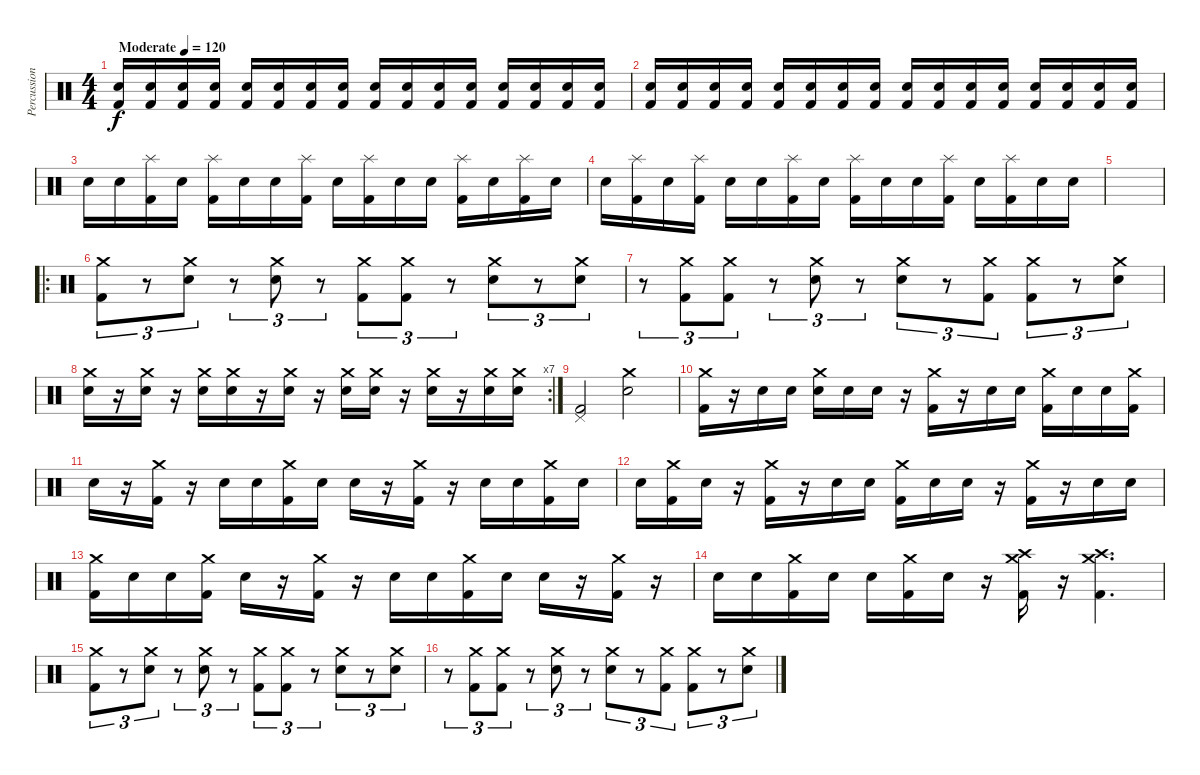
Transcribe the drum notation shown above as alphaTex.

\track ("Percussion" "Percussion") {instrument percussion}
\staff {score}
\articulation defaults
\ts (4 4)
\tempo (120 "Moderate")
\clef neutral
\ks c
("Snare (hit) 2" "Kick (hit) 2").16{dy f} ("Snare (hit) 2" "Kick (hit) 2").16 ("Snare (hit) 2" "Kick (hit) 2").16 ("Snare (hit) 2" "Kick (hit) 2").16 ("Snare (hit) 2" "Kick (hit) 2").16 ("Snare (hit) 2" "Kick (hit) 2").16 ("Snare (hit) 2" "Kick (hit) 2").16 ("Snare (hit) 2" "Kick (hit) 2").16 ("Snare (hit) 2" "Kick (hit) 2").16 ("Snare (hit) 2" "Kick (hit) 2").16 ("Snare (hit) 2" "Kick (hit) 2").16 ("Snare (hit) 2" "Kick (hit) 2").16 ("Snare (hit) 2" "Kick (hit) 2").16 ("Snare (hit) 2" "Kick (hit) 2").16 ("Snare (hit) 2" "Kick (hit) 2").16 ("Snare (hit) 2" "Kick (hit) 2").16 |
("Snare (hit) 2" "Kick (hit) 2").16 ("Snare (hit) 2" "Kick (hit) 2").16 ("Snare (hit) 2" "Kick (hit) 2").16 ("Snare (hit) 2" "Kick (hit) 2").16 ("Snare (hit) 2" "Kick (hit) 2").16 ("Snare (hit) 2" "Kick (hit) 2").16 ("Snare (hit) 2" "Kick (hit) 2").16 ("Snare (hit) 2" "Kick (hit) 2").16 ("Snare (hit) 2" "Kick (hit) 2").16 ("Snare (hit) 2" "Kick (hit) 2").16 ("Snare (hit) 2" "Kick (hit) 2").16 ("Snare (hit) 2" "Kick (hit) 2").16 ("Snare (hit) 2" "Kick (hit) 2").16 ("Snare (hit) 2" "Kick (hit) 2").16 ("Snare (hit) 2" "Kick (hit) 2").16 ("Snare (hit) 2" "Kick (hit) 2").16 |
"Snare (hit) 2".16 "Snare (hit) 2".16 ("Splash (hit)" "Kick (hit) 2").16 "Snare (hit) 2".16 ("Splash (hit)" "Kick (hit) 2").16 "Snare (hit) 2".16 "Snare (hit) 2".16 ("Splash (hit)" "Kick (hit) 2").16 "Snare (hit) 2".16 ("Splash (hit)" "Kick (hit) 2").16 "Snare (hit) 2".16 "Snare (hit) 2".16 ("Splash (hit)" "Kick (hit) 2").16 "Snare (hit) 2".16 ("Splash (hit)" "Kick (hit) 2").16 "Snare (hit) 2".16 |
"Snare (hit) 2".16 ("Splash (hit)" "Kick (hit) 2").16 "Snare (hit) 2".16 ("Splash (hit)" "Kick (hit) 2").16 "Snare (hit) 2".16 "Snare (hit) 2".16 ("Splash (hit)" "Kick (hit) 2").16 "Snare (hit) 2".16 ("Splash (hit)" "Kick (hit) 2").16 "Snare (hit) 2".16 "Snare (hit) 2".16 ("Splash (hit)" "Kick (hit) 2").16 "Snare (hit) 2".16 ("Splash (hit)" "Kick (hit) 2").16 "Snare (hit) 2".16 "Snare (hit) 2".16 |
|
\ro
("Crash medium (hit)" "Kick (hit) 2").8{tu (3 2)} r.8{tu (3 2)} ("Crash medium (hit)" "Snare (hit) 2").8{tu (3 2)} r.8{tu (3 2)} ("Crash medium (hit)" "Snare (hit) 2").8{tu (3 2)} r.8{tu (3 2)} ("Crash medium (hit)" "Kick (hit) 2").8{tu (3 2)} ("Crash medium (hit)" "Kick (hit) 2").8{tu (3 2)} r.8{tu (3 2)} ("Crash medium (hit)" "Snare (hit) 2").8{tu (3 2)} r.8{tu (3 2)} ("Crash medium (hit)" "Snare (hit) 2").8{tu (3 2)} |
r.8{tu (3 2)} ("Crash medium (hit)" "Kick (hit) 2").8{tu (3 2)} ("Crash medium (hit)" "Kick (hit) 2").8{tu (3 2)} r.8{tu (3 2)} ("Crash medium (hit)" "Snare (hit) 2").8{tu (3 2)} r.8{tu (3 2)} ("Crash medium (hit)" "Snare (hit) 2").8{tu (3 2)} r.8{tu (3 2)} ("Crash medium (hit)" "Kick (hit) 2").8{tu (3 2)} ("Crash medium (hit)" "Kick (hit) 2").8{tu (3 2)} r.8{tu (3 2)} ("Crash medium (hit)" "Snare (hit) 2").8{tu (3 2)} |
\rc 7
("Crash medium (hit)" "Snare (hit) 2").16 r.16 ("Crash medium (hit)" "Snare (hit) 2").16 r.16 ("Crash medium (hit)" "Snare (hit) 2").16 ("Crash medium (hit)" "Snare (hit) 2").16 r.16 ("Crash medium (hit)" "Snare (hit) 2").16 r.16 ("Crash medium (hit)" "Snare (hit) 2").16 ("Crash medium (hit)" "Snare (hit) 2").16 r.16 ("Crash medium (hit)" "Snare (hit) 2").16 r.16 ("Crash medium (hit)" "Snare (hit) 2").16 ("Crash medium (hit)" "Snare (hit) 2").16 |
("Pedal Hi-Hat (hit)" "Kick (hit) 2").2 ("Crash medium (hit)" "Snare (hit) 2").2 |
("Crash medium (hit)" "Kick (hit) 2").16 r.16 "Snare (hit) 2".16 "Snare (hit) 2".16 ("Crash medium (hit)" "Snare (hit) 2").16 "Snare (hit) 2".16 "Snare (hit) 2".16 r.16 ("Crash medium (hit)" "Kick (hit) 2").16 r.16 "Snare (hit) 2".16 "Snare (hit) 2".16 ("Crash medium (hit)" "Kick (hit) 2").16 "Snare (hit) 2".16 "Snare (hit) 2".16 ("Crash medium (hit)" "Kick (hit) 2").16 |
"Snare (hit) 2".16 r.16 ("Crash medium (hit)" "Kick (hit) 2").16 r.16 "Snare (hit) 2".16 "Snare (hit) 2".16 ("Crash medium (hit)" "Kick (hit) 2").16 "Snare (hit) 2".16 "Snare (hit) 2".16 r.16 ("Crash medium (hit)" "Kick (hit) 2").16 r.16 "Snare (hit) 2".16 "Snare (hit) 2".16 ("Crash medium (hit)" "Kick (hit) 2").16 "Snare (hit) 2".16 |
"Snare (hit) 2".16 ("Crash medium (hit)" "Kick (hit) 2").16 "Snare (hit) 2".16 r.16 ("Crash medium (hit)" "Kick (hit) 2").16 r.16 "Snare (hit) 2".16 "Snare (hit) 2".16 ("Crash medium (hit)" "Kick (hit) 2").16 "Snare (hit) 2".16 "Snare (hit) 2".16 r.16 ("Crash medium (hit)" "Kick (hit) 2").16 r.16 "Snare (hit) 2".16 "Snare (hit) 2".16 |
("Crash medium (hit)" "Kick (hit) 2").16 "Snare (hit) 2".16 "Snare (hit) 2".16 ("Crash medium (hit)" "Kick (hit) 2").16 "Snare (hit) 2".16 r.16 ("Crash medium (hit)" "Kick (hit) 2").16 r.16 "Snare (hit) 2".16 "Snare (hit) 2".16 ("Crash medium (hit)" "Kick (hit) 2").16 "Snare (hit) 2".16 "Snare (hit) 2".16 r.16 ("Crash medium (hit)" "Kick (hit) 2").16 r.16 |
"Snare (hit) 2".16 "Snare (hit) 2".16 ("Crash medium (hit)" "Kick (hit) 2").16 "Snare (hit) 2".16 "Snare (hit) 2".16 ("Crash medium (hit)" "Kick (hit) 2").16 "Snare (hit) 2".16 r.16 ("Crash medium (hit)" "Crash high (hit)" "Kick (hit) 2").16 r.16 ("Crash medium (hit)" "Crash high (hit)" "Kick (hit) 2").4{d} |
("Crash medium (hit)" "Kick (hit) 2").8{tu (3 2)} r.8{tu (3 2)} ("Crash medium (hit)" "Snare (hit) 2").8{tu (3 2)} r.8{tu (3 2)} ("Crash medium (hit)" "Snare (hit) 2").8{tu (3 2)} r.8{tu (3 2)} ("Crash medium (hit)" "Kick (hit) 2").8{tu (3 2)} ("Crash medium (hit)" "Kick (hit) 2").8{tu (3 2)} r.8{tu (3 2)} ("Crash medium (hit)" "Snare (hit) 2").8{tu (3 2)} r.8{tu (3 2)} ("Crash medium (hit)" "Snare (hit) 2").8{tu (3 2)} |
r.8{tu (3 2)} ("Crash medium (hit)" "Kick (hit) 2").8{tu (3 2)} ("Crash medium (hit)" "Kick (hit) 2").8{tu (3 2)} r.8{tu (3 2)} ("Crash medium (hit)" "Snare (hit) 2").8{tu (3 2)} r.8{tu (3 2)} ("Crash medium (hit)" "Snare (hit) 2").8{tu (3 2)} r.8{tu (3 2)} ("Crash medium (hit)" "Kick (hit) 2").8{tu (3 2)} ("Crash medium (hit)" "Kick (hit) 2").8{tu (3 2)} r.8{tu (3 2)} ("Crash medium (hit)" "Snare (hit) 2").8{tu (3 2)}
